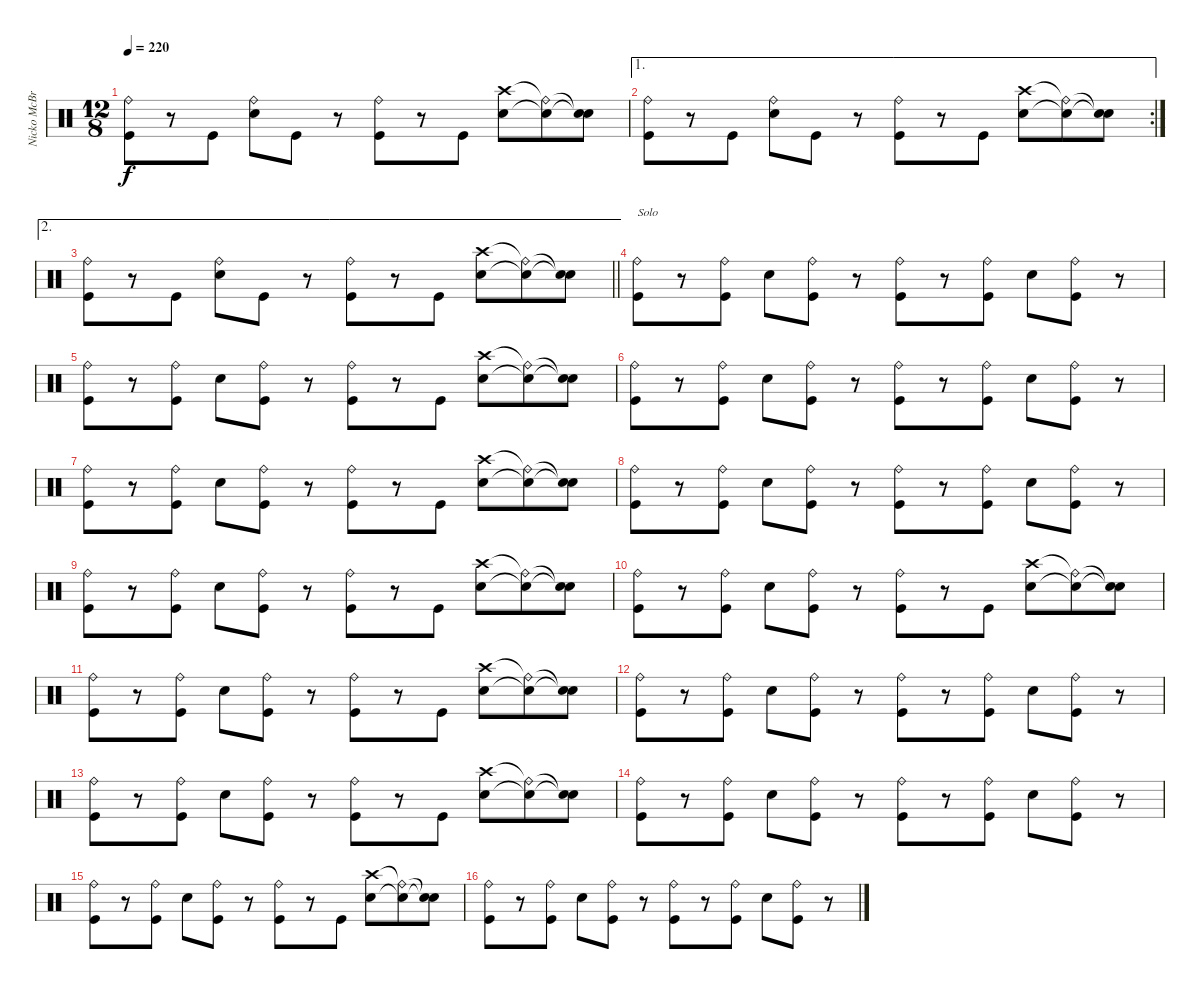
\track ("Nicko McBrain" "Nicko McBr") {instrument percussion}
\staff {score}
\articulation defaults
\ts (12 8)
\tempo 220
\clef neutral
\ks c
("Ride (bell)" "Kick (hit)").8{dy f} r.8 "Kick (hit)".8 ("Ride (bell)" "Electric Snare (hit)").8 "Kick (hit)".8 r.8 ("Ride (bell)" "Kick (hit)").8 r.8 "Kick (hit)".8 ("Crash high (hit)" "Electric Snare (hit)").8 ("Ride (bell)"{t} "Snare (hit)"{t}).8 ("Snare (hit)"{t} "Snare (hit)"{t}).8 |
\ae 1
\rc 2
("Ride (bell)" "Kick (hit)").8 r.8 "Kick (hit)".8 ("Ride (bell)" "Electric Snare (hit)").8 "Kick (hit)".8 r.8 ("Ride (bell)" "Kick (hit)").8 r.8 "Kick (hit)".8 ("Crash high (hit)" "Electric Snare (hit)").8 ("Ride (bell)"{t} "Snare (hit)"{t}).8 ("Snare (hit)"{t} "Snare (hit)"{t}).8 |
\ae 2
\barLineRight lightlight
("Ride (bell)" "Kick (hit)").8 r.8 "Kick (hit)".8 ("Ride (bell)" "Electric Snare (hit)").8 "Kick (hit)".8 r.8 ("Ride (bell)" "Kick (hit)").8 r.8 "Kick (hit)".8 ("Crash high (hit)" "Electric Snare (hit)").8 ("Ride (bell)"{t} "Snare (hit)"{t}).8 ("Snare (hit)"{t} "Snare (hit)"{t}).8 |
("Ride (bell)" "Kick (hit)").8{txt "Solo"} r.8 ("Ride (bell)" "Kick (hit)").8 "Electric Snare (hit)".8 ("Ride (bell)" "Kick (hit)").8 r.8 ("Ride (bell)" "Kick (hit)").8 r.8 ("Ride (bell)" "Kick (hit)").8 "Electric Snare (hit)".8 ("Ride (bell)" "Kick (hit)").8 r.8 |
("Ride (bell)" "Kick (hit)").8 r.8 ("Ride (bell)" "Kick (hit)").8 "Electric Snare (hit)".8 ("Ride (bell)" "Kick (hit)").8 r.8 ("Ride (bell)" "Kick (hit)").8 r.8 "Kick (hit)".8 ("Crash high (hit)" "Electric Snare (hit)").8 ("Ride (bell)"{t} "Snare (hit)"{t}).8 ("Snare (hit)"{t} "Snare (hit)"{t}).8 |
("Ride (bell)" "Kick (hit)").8 r.8 ("Ride (bell)" "Kick (hit)").8 "Electric Snare (hit)".8 ("Ride (bell)" "Kick (hit)").8 r.8 ("Ride (bell)" "Kick (hit)").8 r.8 ("Ride (bell)" "Kick (hit)").8 "Electric Snare (hit)".8 ("Ride (bell)" "Kick (hit)").8 r.8 |
("Ride (bell)" "Kick (hit)").8 r.8 ("Ride (bell)" "Kick (hit)").8 "Electric Snare (hit)".8 ("Ride (bell)" "Kick (hit)").8 r.8 ("Ride (bell)" "Kick (hit)").8 r.8 "Kick (hit)".8 ("Crash high (hit)" "Electric Snare (hit)").8 ("Ride (bell)"{t} "Snare (hit)"{t}).8 ("Snare (hit)"{t} "Snare (hit)"{t}).8 |
("Ride (bell)" "Kick (hit)").8 r.8 ("Ride (bell)" "Kick (hit)").8 "Electric Snare (hit)".8 ("Ride (bell)" "Kick (hit)").8 r.8 ("Ride (bell)" "Kick (hit)").8 r.8 ("Ride (bell)" "Kick (hit)").8 "Electric Snare (hit)".8 ("Ride (bell)" "Kick (hit)").8 r.8 |
("Ride (bell)" "Kick (hit)").8 r.8 ("Ride (bell)" "Kick (hit)").8 "Electric Snare (hit)".8 ("Ride (bell)" "Kick (hit)").8 r.8 ("Ride (bell)" "Kick (hit)").8 r.8 "Kick (hit)".8 ("Crash high (hit)" "Electric Snare (hit)").8 ("Ride (bell)"{t} "Snare (hit)"{t}).8 ("Snare (hit)"{t} "Snare (hit)"{t}).8 |
("Ride (bell)" "Kick (hit)").8 r.8 ("Ride (bell)" "Kick (hit)").8 "Electric Snare (hit)".8 ("Ride (bell)" "Kick (hit)").8 r.8 ("Ride (bell)" "Kick (hit)").8 r.8 "Kick (hit)".8 ("Crash high (hit)" "Electric Snare (hit)").8 ("Ride (bell)"{t} "Snare (hit)"{t}).8 ("Snare (hit)"{t} "Snare (hit)"{t}).8 |
("Ride (bell)" "Kick (hit)").8 r.8 ("Ride (bell)" "Kick (hit)").8 "Electric Snare (hit)".8 ("Ride (bell)" "Kick (hit)").8 r.8 ("Ride (bell)" "Kick (hit)").8 r.8 "Kick (hit)".8 ("Crash high (hit)" "Electric Snare (hit)").8 ("Ride (bell)"{t} "Snare (hit)"{t}).8 ("Snare (hit)"{t} "Snare (hit)"{t}).8 |
("Ride (bell)" "Kick (hit)").8 r.8 ("Ride (bell)" "Kick (hit)").8 "Electric Snare (hit)".8 ("Ride (bell)" "Kick (hit)").8 r.8 ("Ride (bell)" "Kick (hit)").8 r.8 ("Ride (bell)" "Kick (hit)").8 "Electric Snare (hit)".8 ("Ride (bell)" "Kick (hit)").8 r.8 |
("Ride (bell)" "Kick (hit)").8 r.8 ("Ride (bell)" "Kick (hit)").8 "Electric Snare (hit)".8 ("Ride (bell)" "Kick (hit)").8 r.8 ("Ride (bell)" "Kick (hit)").8 r.8 "Kick (hit)".8 ("Crash high (hit)" "Electric Snare (hit)").8 ("Ride (bell)"{t} "Snare (hit)"{t}).8 ("Snare (hit)"{t} "Snare (hit)"{t}).8 |
("Ride (bell)" "Kick (hit)").8 r.8 ("Ride (bell)" "Kick (hit)").8 "Electric Snare (hit)".8 ("Ride (bell)" "Kick (hit)").8 r.8 ("Ride (bell)" "Kick (hit)").8 r.8 ("Ride (bell)" "Kick (hit)").8 "Electric Snare (hit)".8 ("Ride (bell)" "Kick (hit)").8 r.8 |
("Ride (bell)" "Kick (hit)").8 r.8 ("Ride (bell)" "Kick (hit)").8 "Electric Snare (hit)".8 ("Ride (bell)" "Kick (hit)").8 r.8 ("Ride (bell)" "Kick (hit)").8 r.8 "Kick (hit)".8 ("Crash high (hit)" "Electric Snare (hit)").8 ("Ride (bell)"{t} "Snare (hit)"{t}).8 ("Snare (hit)"{t} "Snare (hit)"{t}).8 |
("Ride (bell)" "Kick (hit)").8 r.8 ("Ride (bell)" "Kick (hit)").8 "Electric Snare (hit)".8 ("Ride (bell)" "Kick (hit)").8 r.8 ("Ride (bell)" "Kick (hit)").8 r.8 ("Ride (bell)" "Kick (hit)").8 "Electric Snare (hit)".8 ("Ride (bell)" "Kick (hit)").8 r.8
